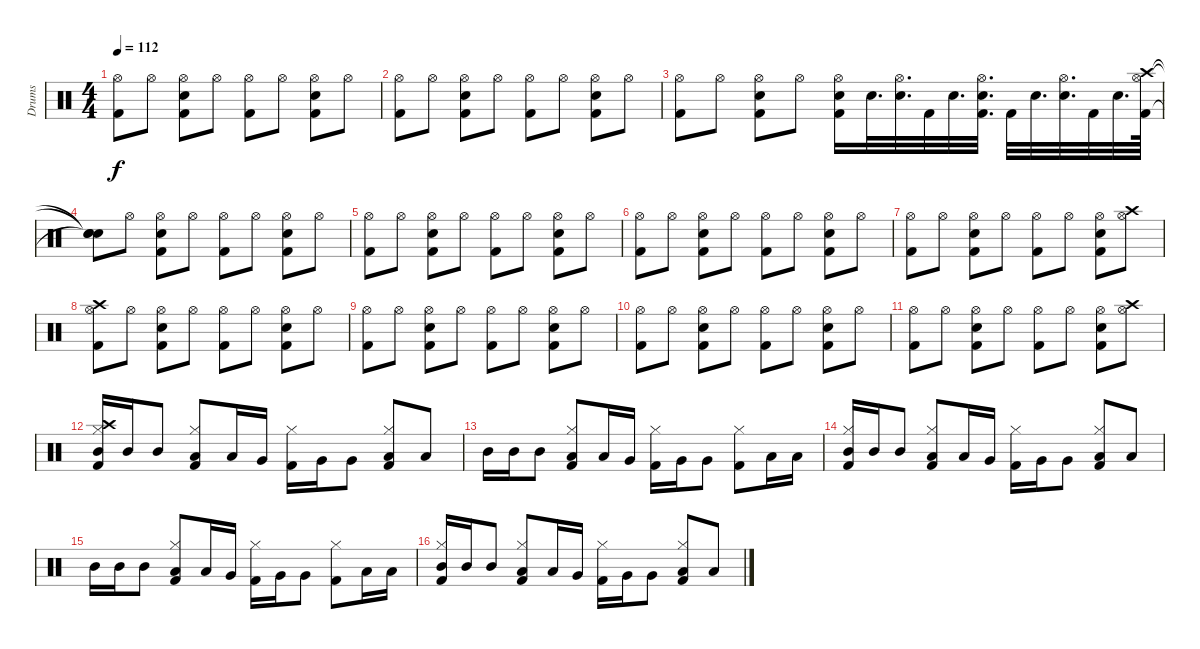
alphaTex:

\track ("Drums" "Drums") {instrument percussion}
\staff {score}
\articulation defaults
\ts (4 4)
\tempo 112
\clef neutral
\ks c
("Hi-Hat (open)" "Kick (hit) 2").8{dy f} "Hi-Hat (open)".8 ("Hi-Hat (open)" "Kick (hit) 2" "Snare (hit) 2").8 "Hi-Hat (open)".8 ("Kick (hit) 2" "Hi-Hat (open)").8 "Hi-Hat (open)".8 ("Kick (hit) 2" "Snare (hit) 2" "Hi-Hat (open)").8 "Hi-Hat (open)".8 |
("Hi-Hat (open)" "Kick (hit) 2").8 "Hi-Hat (open)".8 ("Hi-Hat (open)" "Kick (hit) 2" "Snare (hit) 2").8 "Hi-Hat (open)".8 ("Kick (hit) 2" "Hi-Hat (open)").8 "Hi-Hat (open)".8 ("Kick (hit) 2" "Snare (hit) 2" "Hi-Hat (open)").8 "Hi-Hat (open)".8 |
("Hi-Hat (open)" "Kick (hit) 2").8 "Hi-Hat (open)".8 ("Kick (hit) 2" "Snare (hit) 2" "Hi-Hat (open)").8 "Hi-Hat (open)".8 ("Hi-Hat (open)" "Kick (hit) 2" "Snare (hit) 2").16 "Snare (hit) 2".32{d} ("Hi-Hat (open)" "Snare (hit) 2").32{d} "Kick (hit) 2".32 "Snare (hit) 2".32{d} ("Hi-Hat (open)" "Snare (hit) 2" "Kick (hit) 2").32{d} "Kick (hit) 2".32 "Snare (hit) 2".32{d} ("Snare (hit) 2" "Hi-Hat (open)").32{d} "Kick (hit) 2".32 "Snare (hit) 2".32{d} ("Hi-Hat (open)" "Kick (hit) 2" "Crash high (hit)").64 |
("Snare (hit)"{t} "Snare (hit)"{t} "Snare (hit)"{t}).8 "Hi-Hat (open)".8 ("Snare (hit) 2" "Hi-Hat (open)" "Kick (hit) 2").8 "Hi-Hat (open)".8 ("Hi-Hat (open)" "Kick (hit) 2").8 "Hi-Hat (open)".8 ("Kick (hit) 2" "Hi-Hat (open)" "Snare (hit) 2").8 "Hi-Hat (open)".8 |
("Hi-Hat (open)" "Kick (hit) 2").8 "Hi-Hat (open)".8 ("Kick (hit) 2" "Snare (hit) 2" "Hi-Hat (open)").8 "Hi-Hat (open)".8 ("Hi-Hat (open)" "Kick (hit) 2").8 "Hi-Hat (open)".8 ("Snare (hit) 2" "Kick (hit) 2" "Hi-Hat (open)").8 "Hi-Hat (open)".8 |
("Hi-Hat (open)" "Kick (hit) 2").8 "Hi-Hat (open)".8 ("Kick (hit) 2" "Snare (hit) 2" "Hi-Hat (open)").8 "Hi-Hat (open)".8 ("Hi-Hat (open)" "Kick (hit) 2").8 "Hi-Hat (open)".8 ("Snare (hit) 2" "Kick (hit) 2" "Hi-Hat (open)").8 "Hi-Hat (open)".8 |
("Hi-Hat (open)" "Kick (hit) 2").8 "Hi-Hat (open)".8 ("Kick (hit) 2" "Snare (hit) 2" "Hi-Hat (open)").8 "Hi-Hat (open)".8 ("Hi-Hat (open)" "Kick (hit) 2").8 "Hi-Hat (open)".8 ("Snare (hit) 2" "Kick (hit) 2" "Hi-Hat (open)").8 ("Hi-Hat (open)" "Crash high (hit)").8 |
("Hi-Hat (open)" "Kick (hit) 2" "Crash high (hit)").8 "Hi-Hat (open)".8 ("Kick (hit) 2" "Snare (hit) 2" "Hi-Hat (open)").8 "Hi-Hat (open)".8 ("Hi-Hat (open)" "Kick (hit) 2").8 "Hi-Hat (open)".8 ("Snare (hit) 2" "Kick (hit) 2" "Hi-Hat (open)").8 "Hi-Hat (open)".8 |
("Hi-Hat (open)" "Kick (hit) 2").8 "Hi-Hat (open)".8 ("Kick (hit) 2" "Snare (hit) 2" "Hi-Hat (open)").8 "Hi-Hat (open)".8 ("Hi-Hat (open)" "Kick (hit) 2").8 "Hi-Hat (open)".8 ("Snare (hit) 2" "Kick (hit) 2" "Hi-Hat (open)").8 "Hi-Hat (open)".8 |
("Hi-Hat (open)" "Kick (hit) 2").8 "Hi-Hat (open)".8 ("Kick (hit) 2" "Snare (hit) 2" "Hi-Hat (open)").8 "Hi-Hat (open)".8 ("Hi-Hat (open)" "Kick (hit) 2").8 "Hi-Hat (open)".8 ("Snare (hit) 2" "Kick (hit) 2" "Hi-Hat (open)").8 "Hi-Hat (open)".8 |
("Hi-Hat (open)" "Kick (hit) 2").8 "Hi-Hat (open)".8 ("Kick (hit) 2" "Snare (hit) 2" "Hi-Hat (open)").8 "Hi-Hat (open)".8 ("Hi-Hat (open)" "Kick (hit) 2").8 "Hi-Hat (open)".8 ("Snare (hit) 2" "Kick (hit) 2" "Hi-Hat (open)").8 ("Hi-Hat (open)" "Crash high (hit)").8 |
("Crash high (hit)" "Hi-Hat (closed)" "Mid Tom (hit)" "Kick (hit) 2").16 "Mid Tom (hit)".16 "Mid Tom (hit)".8 ("Kick (hit) 2" "Hi-Hat (closed)" "Low Tom (hit)").8 "Low Tom (hit)".16 "Very Low Tom (hit)".16 ("Kick (hit) 2" "Hi-Hat (closed)").16 "Very Low Tom (hit)".16 "Very Low Tom (hit)".8 ("Hi-Hat (closed)" "Kick (hit) 2" "Low Floor Tom (hit)").8 "Low Floor Tom (hit)".8 |
"Mid Tom (hit)".16 "Mid Tom (hit)".16 "Mid Tom (hit)".8 ("Hi-Hat (closed)" "Kick (hit) 2" "Low Tom (hit)").8 "Low Tom (hit)".16 "Very Low Tom (hit)".16 ("Kick (hit) 2" "Hi-Hat (closed)").16 "Very Low Tom (hit)".16 "Very Low Tom (hit)".8 ("Kick (hit) 2" "Hi-Hat (closed)").8 "Low Floor Tom (hit)".16 "Low Floor Tom (hit)".16 |
("Hi-Hat (closed)" "Kick (hit) 2" "Mid Tom (hit)").16 "Mid Tom (hit)".16 "Mid Tom (hit)".8 ("Hi-Hat (closed)" "Low Tom (hit)" "Kick (hit) 2").8 "Low Tom (hit)".16 "Very Low Tom (hit)".16 ("Kick (hit) 2" "Hi-Hat (closed)").16 "Very Low Tom (hit)".16 "Very Low Tom (hit)".8 ("Low Floor Tom (hit)" "Kick (hit) 2" "Hi-Hat (closed)").8 "Low Floor Tom (hit)".8 |
"Mid Tom (hit)".16 "Mid Tom (hit)".16 "Mid Tom (hit)".8 ("Hi-Hat (closed)" "Kick (hit) 2" "Low Tom (hit)").8 "Low Tom (hit)".16 "Very Low Tom (hit)".16 ("Kick (hit) 2" "Hi-Hat (closed)").16 "Very Low Tom (hit)".16 "Very Low Tom (hit)".8 ("Kick (hit) 2" "Hi-Hat (closed)").8 "Low Floor Tom (hit)".16 "Low Floor Tom (hit)".16 |
("Hi-Hat (closed)" "Kick (hit) 2" "Mid Tom (hit)").16 "Mid Tom (hit)".16 "Mid Tom (hit)".8 ("Hi-Hat (closed)" "Low Tom (hit)" "Kick (hit) 2").8 "Low Tom (hit)".16 "Very Low Tom (hit)".16 ("Kick (hit) 2" "Hi-Hat (closed)").16 "Very Low Tom (hit)".16 "Very Low Tom (hit)".8 ("Low Floor Tom (hit)" "Kick (hit) 2" "Hi-Hat (closed)").8 "Low Floor Tom (hit)".8
